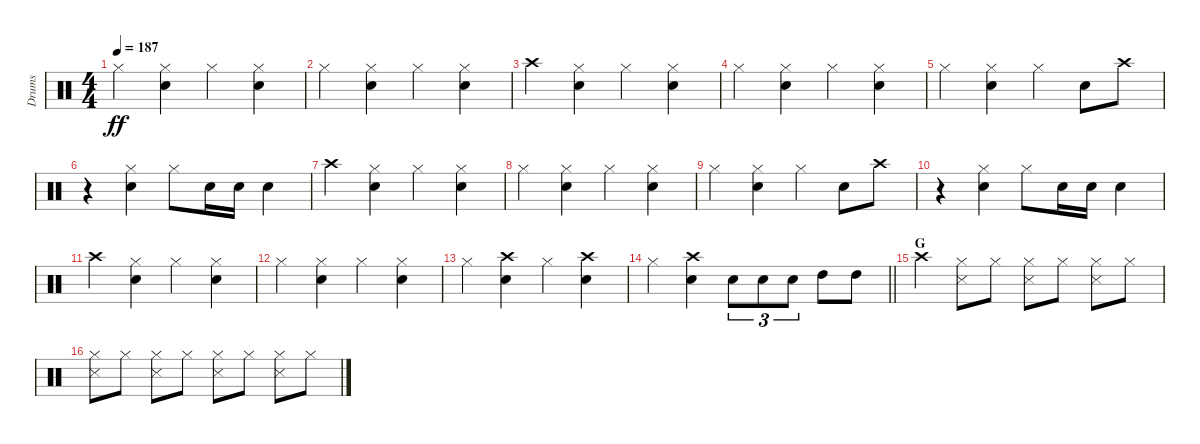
\track ("Drums" "Drums") {instrument percussion}
\staff {score}
\articulation defaults
\ts (4 4)
\tempo 187
\clef neutral
\ks c "Hi-Hat (closed)".4{dy ff}
("Hi-Hat (closed)" "Snare (hit) 2").4 "Hi-Hat (closed)".4 ("Hi-Hat (closed)" "Snare (hit) 2").4 |
"Hi-Hat (closed)".4 ("Hi-Hat (closed)" "Snare (hit) 2").4 "Hi-Hat (closed)".4 ("Hi-Hat (closed)" "Snare (hit) 2").4 |
"Crash high (hit)".4 ("Hi-Hat (closed)" "Snare (hit) 2").4 "Hi-Hat (closed)".4 ("Hi-Hat (closed)" "Snare (hit) 2").4 |
"Hi-Hat (closed)".4 ("Hi-Hat (closed)" "Snare (hit) 2").4 "Hi-Hat (closed)".4 ("Hi-Hat (closed)" "Snare (hit) 2").4 |
"Hi-Hat (closed)".4 ("Hi-Hat (closed)" "Snare (hit) 2").4 "Hi-Hat (closed)".4 "Snare (hit) 2".8 "Crash high (hit)".8 |
r.4 ("Hi-Hat (closed)" "Snare (hit) 2").4 "Hi-Hat (closed)".8 "Snare (hit) 2".16 "Snare (hit) 2".16 "Snare (hit) 2".4 |
"Crash high (hit)".4 ("Hi-Hat (closed)" "Snare (hit) 2").4 "Hi-Hat (closed)".4 ("Hi-Hat (closed)" "Snare (hit) 2").4 |
"Hi-Hat (closed)".4 ("Hi-Hat (closed)" "Snare (hit) 2").4 "Hi-Hat (closed)".4 ("Hi-Hat (closed)" "Snare (hit) 2").4 |
"Hi-Hat (closed)".4 ("Hi-Hat (closed)" "Snare (hit) 2").4 "Hi-Hat (closed)".4 "Snare (hit) 2".8 "Crash high (hit)".8 |
r.4 ("Hi-Hat (closed)" "Snare (hit) 2").4 "Hi-Hat (closed)".8 "Snare (hit) 2".16 "Snare (hit) 2".16 "Snare (hit) 2".4 |
"Crash high (hit)".4 ("Hi-Hat (closed)" "Snare (hit) 2").4 "Hi-Hat (closed)".4 ("Hi-Hat (closed)" "Snare (hit) 2").4 |
"Hi-Hat (closed)".4 ("Hi-Hat (closed)" "Snare (hit) 2").4 "Hi-Hat (closed)".4 ("Hi-Hat (closed)" "Snare (hit) 2").4 |
"Hi-Hat (closed)".4 ("Crash high (hit)" "Snare (hit) 2").4 "Hi-Hat (closed)".4 ("Crash high (hit)" "Snare (hit) 2").4 |
\barLineRight lightlight "Hi-Hat (closed)".4
("Crash high (hit)" "Snare (hit) 2").4 "Snare (hit) 2".8{tu (3 2)} "Snare (hit) 2".8{tu (3 2)} "Snare (hit) 2".8{tu (3 2)} "High Tom (hit)".8 "High Tom (hit)".8 |
\section ("" "G")
"Crash high (hit)".4 ("Hi-Hat (closed)" "Snare (side stick) 3").8 "Hi-Hat (closed)".8 ("Snare (side stick) 3" "Hi-Hat (closed)").8 "Hi-Hat (closed)".8 ("Snare (side stick) 3" "Hi-Hat (closed)").8 "Hi-Hat (closed)".8 |
("Hi-Hat (closed)" "Snare (side stick) 3").8 "Hi-Hat (closed)".8 ("Snare (side stick) 3" "Hi-Hat (closed)").8 "Hi-Hat (closed)".8 ("Snare (side stick) 3" "Hi-Hat (closed)").8 "Hi-Hat (closed)".8 ("Snare (side stick) 3" "Hi-Hat (closed)").8 "Hi-Hat (closed)".8
